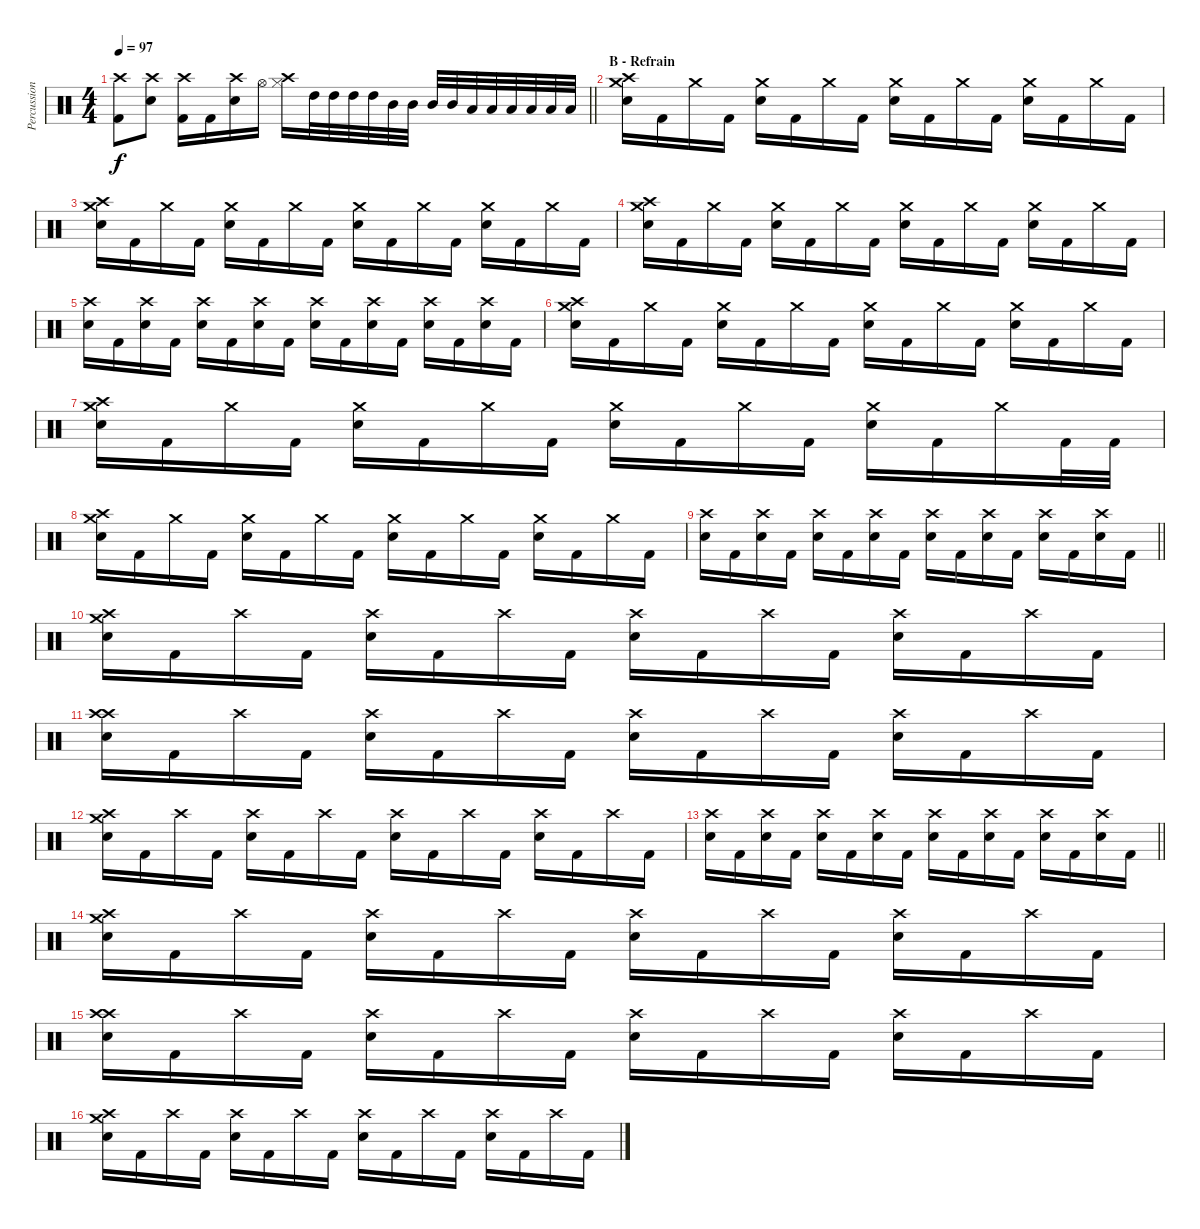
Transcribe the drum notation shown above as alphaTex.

\track ("Percussions" "Percussion") {instrument percussion}
\staff {score}
\articulation defaults
\ts (4 4)
\tempo 97
\clef neutral
\barLineRight lightlight
\ks c
("Crash high (hit)" "Kick (hit) 2").8{dy f} ("Crash high (hit)" "Snare (hit) 2").8 ("Crash high (hit)" "Kick (hit) 2").16 "Kick (hit) 2".16 ("Crash high (hit)" "Snare (hit) 2").16 "Hi-Hat (open)".16 ("Crash high (hit)" "Hi-Hat (closed)").16 "High Tom (hit)".32 "High Tom (hit)".32 "High Tom (hit)".32 "High Tom (hit)".32 "Mid Tom (hit)".32 "Mid Tom (hit)".32 "Mid Tom (hit)".32 "Mid Tom (hit)".32 "Low Tom (hit)".32 "Low Tom (hit)".32 "Low Tom (hit)".32 "Low Tom (hit)".32 "Low Tom (hit)".32 "Low Floor Tom (hit)".32 |
\section ("" "B - Refrain")
("Crash medium (hit)" "Crash high (hit)" "Snare (hit) 2").16 "Kick (hit) 2".16 "Crash medium (hit)".16 "Kick (hit) 2".16 ("Crash medium (hit)" "Snare (hit) 2").16 "Kick (hit) 2".16 "Crash medium (hit)".16 "Kick (hit) 2".16 ("Crash medium (hit)" "Snare (hit) 2").16 "Kick (hit) 2".16 "Crash medium (hit)".16 "Kick (hit) 2".16 ("Crash medium (hit)" "Snare (hit) 2").16 "Kick (hit) 2".16 "Crash medium (hit)".16 "Kick (hit) 2".16 |
("Crash medium (hit)" "Crash high (hit)" "Snare (hit) 2").16 "Kick (hit) 2".16 "Crash medium (hit)".16 "Kick (hit) 2".16 ("Crash medium (hit)" "Snare (hit) 2").16 "Kick (hit) 2".16 "Crash medium (hit)".16 "Kick (hit) 2".16 ("Crash medium (hit)" "Snare (hit) 2").16 "Kick (hit) 2".16 "Crash medium (hit)".16 "Kick (hit) 2".16 ("Crash medium (hit)" "Snare (hit) 2").16 "Kick (hit) 2".16 "Crash medium (hit)".16 "Kick (hit) 2".16 |
("Crash medium (hit)" "Crash high (hit)" "Snare (hit) 2").16 "Kick (hit) 2".16 "Crash medium (hit)".16 "Kick (hit) 2".16 ("Crash medium (hit)" "Snare (hit) 2").16 "Kick (hit) 2".16 "Crash medium (hit)".16 "Kick (hit) 2".16 ("Crash medium (hit)" "Snare (hit) 2").16 "Kick (hit) 2".16 "Crash medium (hit)".16 "Kick (hit) 2".16 ("Crash medium (hit)" "Snare (hit) 2").16 "Kick (hit) 2".16 "Crash medium (hit)".16 "Kick (hit) 2".16 |
("Crash high (hit)" "Snare (hit) 2").16 "Kick (hit) 2".16 ("Crash high (hit)" "Snare (hit) 2").16 "Kick (hit) 2".16 ("Crash high (hit)" "Snare (hit) 2").16 "Kick (hit) 2".16 ("Crash high (hit)" "Snare (hit) 2").16 "Kick (hit) 2".16 ("Crash high (hit)" "Snare (hit) 2").16 "Kick (hit) 2".16 ("Crash high (hit)" "Snare (hit) 2").16 "Kick (hit) 2".16 ("Crash high (hit)" "Snare (hit) 2").16 "Kick (hit) 2".16 ("Crash high (hit)" "Snare (hit) 2").16 "Kick (hit) 2".16 |
("Crash medium (hit)" "Crash high (hit)" "Snare (hit) 2").16 "Kick (hit) 2".16 "Crash medium (hit)".16 "Kick (hit) 2".16 ("Crash medium (hit)" "Snare (hit) 2").16 "Kick (hit) 2".16 "Crash medium (hit)".16 "Kick (hit) 2".16 ("Crash medium (hit)" "Snare (hit) 2").16 "Kick (hit) 2".16 "Crash medium (hit)".16 "Kick (hit) 2".16 ("Crash medium (hit)" "Snare (hit) 2").16 "Kick (hit) 2".16 "Crash medium (hit)".16 "Kick (hit) 2".16 |
("Crash medium (hit)" "Crash high (hit)" "Snare (hit) 2").16 "Kick (hit) 2".16 "Crash medium (hit)".16 "Kick (hit) 2".16 ("Crash medium (hit)" "Snare (hit) 2").16 "Kick (hit) 2".16 "Crash medium (hit)".16 "Kick (hit) 2".16 ("Crash medium (hit)" "Snare (hit) 2").16 "Kick (hit) 2".16 "Crash medium (hit)".16 "Kick (hit) 2".16 ("Crash medium (hit)" "Snare (hit) 2").16 "Kick (hit) 2".16 "Crash medium (hit)".16 "Kick (hit) 2".32 "Kick (hit) 2".32 |
("Crash medium (hit)" "Crash high (hit)" "Snare (hit) 2").16 "Kick (hit) 2".16 "Crash medium (hit)".16 "Kick (hit) 2".16 ("Crash medium (hit)" "Snare (hit) 2").16 "Kick (hit) 2".16 "Crash medium (hit)".16 "Kick (hit) 2".16 ("Crash medium (hit)" "Snare (hit) 2").16 "Kick (hit) 2".16 "Crash medium (hit)".16 "Kick (hit) 2".16 ("Crash medium (hit)" "Snare (hit) 2").16 "Kick (hit) 2".16 "Crash medium (hit)".16 "Kick (hit) 2".16 |
\barLineRight lightlight
("Crash high (hit)" "Snare (hit) 2").16 "Kick (hit) 2".16 ("Crash high (hit)" "Snare (hit) 2").16 "Kick (hit) 2".16 ("Crash high (hit)" "Snare (hit) 2").16 "Kick (hit) 2".16 ("Crash high (hit)" "Snare (hit) 2").16 "Kick (hit) 2".16 ("Crash high (hit)" "Snare (hit) 2").16 "Kick (hit) 2".16 ("Crash high (hit)" "Snare (hit) 2").16 "Kick (hit) 2".16 ("Crash high (hit)" "Snare (hit) 2").16 "Kick (hit) 2".16 ("Crash high (hit)" "Snare (hit) 2").16 "Kick (hit) 2".16 |
("Crash high (hit)" "Crash medium (hit)" "Snare (hit) 2").16 "Kick (hit) 2".16 "Crash high (hit)".16 "Kick (hit) 2".16 ("Crash high (hit)" "Snare (hit) 2").16 "Kick (hit) 2".16 "Crash high (hit)".16 "Kick (hit) 2".16 ("Crash high (hit)" "Snare (hit) 2").16 "Kick (hit) 2".16 "Crash high (hit)".16 "Kick (hit) 2".16 ("Crash high (hit)" "Snare (hit) 2").16 "Kick (hit) 2".16 "Crash high (hit)".16 "Kick (hit) 2".16 |
("Crash high (hit)" "Crash high (hit)" "Snare (hit) 2").16 "Kick (hit) 2".16 "Crash high (hit)".16 "Kick (hit) 2".16 ("Crash high (hit)" "Snare (hit) 2").16 "Kick (hit) 2".16 "Crash high (hit)".16 "Kick (hit) 2".16 ("Crash high (hit)" "Snare (hit) 2").16 "Kick (hit) 2".16 "Crash high (hit)".16 "Kick (hit) 2".16 ("Crash high (hit)" "Snare (hit) 2").16 "Kick (hit) 2".16 "Crash high (hit)".16 "Kick (hit) 2".16 |
("Crash high (hit)" "Crash medium (hit)" "Snare (hit) 2").16 "Kick (hit) 2".16 "Crash high (hit)".16 "Kick (hit) 2".16 ("Crash high (hit)" "Snare (hit) 2").16 "Kick (hit) 2".16 "Crash high (hit)".16 "Kick (hit) 2".16 ("Crash high (hit)" "Snare (hit) 2").16 "Kick (hit) 2".16 "Crash high (hit)".16 "Kick (hit) 2".16 ("Crash high (hit)" "Snare (hit) 2").16 "Kick (hit) 2".16 "Crash high (hit)".16 "Kick (hit) 2".16 |
\barLineRight lightlight
("Crash high (hit)" "Snare (hit) 2").16 "Kick (hit) 2".16 ("Crash high (hit)" "Snare (hit) 2").16 "Kick (hit) 2".16 ("Crash high (hit)" "Snare (hit) 2").16 "Kick (hit) 2".16 ("Crash high (hit)" "Snare (hit) 2").16 "Kick (hit) 2".16 ("Crash high (hit)" "Snare (hit) 2").16 "Kick (hit) 2".16 ("Crash high (hit)" "Snare (hit) 2").16 "Kick (hit) 2".16 ("Crash high (hit)" "Snare (hit) 2").16 "Kick (hit) 2".16 ("Crash high (hit)" "Snare (hit) 2").16 "Kick (hit) 2".16 |
("Crash high (hit)" "Crash medium (hit)" "Snare (hit) 2").16 "Kick (hit) 2".16 "Crash high (hit)".16 "Kick (hit) 2".16 ("Crash high (hit)" "Snare (hit) 2").16 "Kick (hit) 2".16 "Crash high (hit)".16 "Kick (hit) 2".16 ("Crash high (hit)" "Snare (hit) 2").16 "Kick (hit) 2".16 "Crash high (hit)".16 "Kick (hit) 2".16 ("Crash high (hit)" "Snare (hit) 2").16 "Kick (hit) 2".16 "Crash high (hit)".16 "Kick (hit) 2".16 |
("Crash high (hit)" "Crash high (hit)" "Snare (hit) 2").16 "Kick (hit) 2".16 "Crash high (hit)".16 "Kick (hit) 2".16 ("Crash high (hit)" "Snare (hit) 2").16 "Kick (hit) 2".16 "Crash high (hit)".16 "Kick (hit) 2".16 ("Crash high (hit)" "Snare (hit) 2").16 "Kick (hit) 2".16 "Crash high (hit)".16 "Kick (hit) 2".16 ("Crash high (hit)" "Snare (hit) 2").16 "Kick (hit) 2".16 "Crash high (hit)".16 "Kick (hit) 2".16 |
("Crash high (hit)" "Crash medium (hit)" "Snare (hit) 2").16 "Kick (hit) 2".16 "Crash high (hit)".16 "Kick (hit) 2".16 ("Crash high (hit)" "Snare (hit) 2").16 "Kick (hit) 2".16 "Crash high (hit)".16 "Kick (hit) 2".16 ("Crash high (hit)" "Snare (hit) 2").16 "Kick (hit) 2".16 "Crash high (hit)".16 "Kick (hit) 2".16 ("Crash high (hit)" "Snare (hit) 2").16 "Kick (hit) 2".16 "Crash high (hit)".16 "Kick (hit) 2".16
